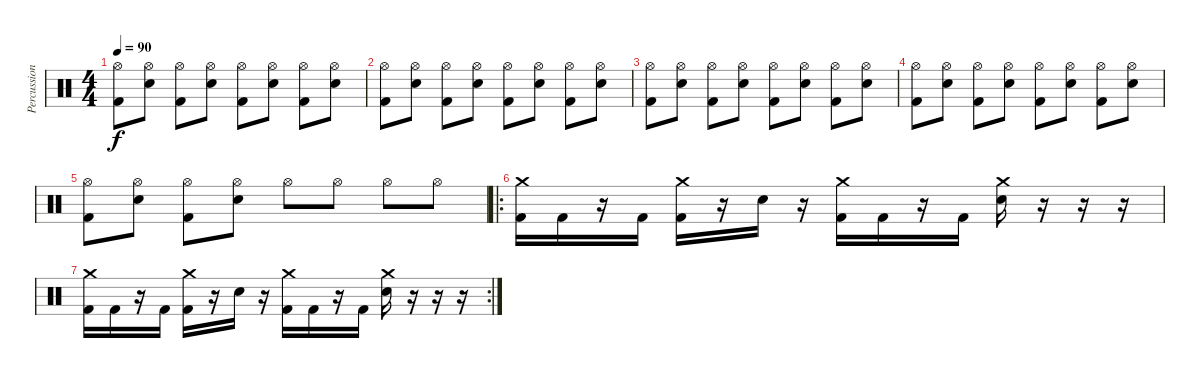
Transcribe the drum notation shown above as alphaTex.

\track ("Percussions" "Percussion") {instrument percussion}
\staff {score}
\articulation defaults
\ts (4 4)
\tempo 90
\clef neutral
\ks c
("Hi-Hat (open)" "Kick (hit) 2").8{dy f} ("Hi-Hat (open)" "Electric Snare (hit)").8 ("Hi-Hat (open)" "Kick (hit) 2").8 ("Hi-Hat (open)" "Electric Snare (hit)").8 ("Hi-Hat (open)" "Kick (hit) 2").8 ("Hi-Hat (open)" "Electric Snare (hit)").8 ("Hi-Hat (open)" "Kick (hit) 2").8 ("Hi-Hat (open)" "Electric Snare (hit)").8 |
("Hi-Hat (open)" "Kick (hit) 2").8 ("Hi-Hat (open)" "Electric Snare (hit)").8 ("Hi-Hat (open)" "Kick (hit) 2").8 ("Hi-Hat (open)" "Electric Snare (hit)").8 ("Hi-Hat (open)" "Kick (hit) 2").8 ("Hi-Hat (open)" "Electric Snare (hit)").8 ("Hi-Hat (open)" "Kick (hit) 2").8 ("Hi-Hat (open)" "Electric Snare (hit)").8 |
("Hi-Hat (open)" "Kick (hit) 2").8 ("Hi-Hat (open)" "Electric Snare (hit)").8 ("Hi-Hat (open)" "Kick (hit) 2").8 ("Hi-Hat (open)" "Electric Snare (hit)").8 ("Hi-Hat (open)" "Kick (hit) 2").8 ("Hi-Hat (open)" "Electric Snare (hit)").8 ("Hi-Hat (open)" "Kick (hit) 2").8 ("Hi-Hat (open)" "Electric Snare (hit)").8 |
("Kick (hit) 2" "Hi-Hat (open)").8 ("Electric Snare (hit)" "Hi-Hat (open)").8 ("Kick (hit) 2" "Hi-Hat (open)").8 ("Electric Snare (hit)" "Hi-Hat (open)").8 ("Kick (hit) 2" "Hi-Hat (open)").8 ("Electric Snare (hit)" "Hi-Hat (open)").8 ("Kick (hit) 2" "Hi-Hat (open)").8 ("Electric Snare (hit)" "Hi-Hat (open)").8 |
("Kick (hit) 2" "Hi-Hat (open)").8 ("Electric Snare (hit)" "Hi-Hat (open)").8 ("Kick (hit) 2" "Hi-Hat (open)").8 ("Electric Snare (hit)" "Hi-Hat (open)").8 "Hi-Hat (open)".8 "Hi-Hat (open)".8 "Hi-Hat (open)".8 "Hi-Hat (open)".8 |
\ro
("Crash medium (hit)" "Kick (hit) 2").16 "Kick (hit) 2".16 r.16 "Kick (hit) 2".16 ("Crash medium (hit)" "Kick (hit) 2").16 r.16 "Electric Snare (hit)".16 r.16 ("Crash medium (hit)" "Kick (hit) 2").16 "Kick (hit) 2".16 r.16 "Kick (hit) 2".16 ("Crash medium (hit)" "Electric Snare (hit)").16 r.16 r.16 r.16 |
\rc 2
("Crash medium (hit)" "Kick (hit) 2").16 "Kick (hit) 2".16 r.16 "Kick (hit) 2".16 ("Crash medium (hit)" "Kick (hit) 2").16 r.16 "Electric Snare (hit)".16 r.16 ("Crash medium (hit)" "Kick (hit) 2").16 "Kick (hit) 2".16 r.16 "Kick (hit) 2".16 ("Crash medium (hit)" "Electric Snare (hit)").16 r.16 r.16 r.16
